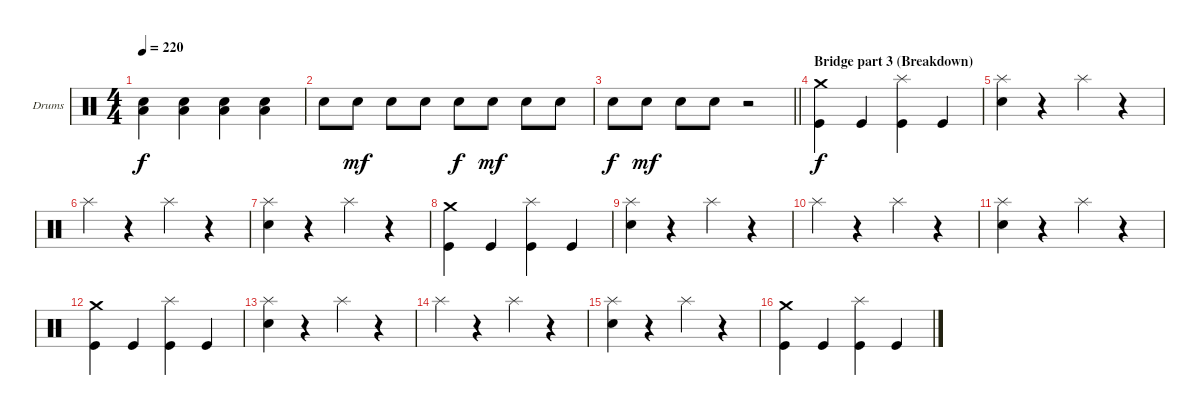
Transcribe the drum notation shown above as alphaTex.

\bracketExtendMode groupsimilarinstruments
\firstSystemTrackNameOrientation horizontal
\otherSystemsTrackNameOrientation horizontal
\track ("Drumkit" "Drums") {instrument percussion}
\staff {score}
\articulation defaults
\ts (4 4)
\tempo 220
\clef neutral
\ks c
("Snare (hit) 2" "Low Tom (hit)").4{dy f} ("Snare (hit) 2" "Low Tom (hit)").4 ("Snare (hit) 2" "Low Tom (hit)").4 ("Snare (hit) 2" "Low Tom (hit)").4 |
"Snare (hit) 2".8 "Snare (hit) 2".8{dy mf} "Snare (hit) 2".8 "Snare (hit) 2".8 "Snare (hit) 2".8{dy f} "Snare (hit) 2".8{dy mf} "Snare (hit) 2".8 "Snare (hit) 2".8 |
\barLineRight lightlight "Snare (hit) 2".8{dy f} "Snare (hit) 2".8{dy mf} "Snare (hit) 2".8 "Snare (hit) 2".8
r.2 |
\section ("" "Bridge part 3 (Breakdown)")
("Crash medium (hit)" "Kick (hit)").4{dy f} "Kick (hit)".4 ("Splash (hit)" "Kick (hit)").4 "Kick (hit)".4 |
("Splash (hit)" "Snare (hit) 2").4 r.4 "Splash (hit)".4 r.4 |
"Splash (hit)".4 r.4 "Splash (hit)".4 r.4 |
("Splash (hit)" "Snare (hit) 2").4 r.4 "Splash (hit)".4 r.4 |
("Crash medium (hit)" "Kick (hit)").4 "Kick (hit)".4 ("Splash (hit)" "Kick (hit)").4 "Kick (hit)".4 |
("Splash (hit)" "Snare (hit) 2").4 r.4 "Splash (hit)".4 r.4 |
"Splash (hit)".4 r.4 "Splash (hit)".4 r.4 |
("Splash (hit)" "Snare (hit) 2").4 r.4 "Splash (hit)".4 r.4 |
("Crash medium (hit)" "Kick (hit)").4 "Kick (hit)".4 ("Splash (hit)" "Kick (hit)").4 "Kick (hit)".4 |
("Splash (hit)" "Snare (hit) 2").4 r.4 "Splash (hit)".4 r.4 |
"Splash (hit)".4 r.4 "Splash (hit)".4 r.4 |
("Splash (hit)" "Snare (hit) 2").4 r.4 "Splash (hit)".4 r.4 |
("Crash medium (hit)" "Kick (hit)").4 "Kick (hit)".4 ("Splash (hit)" "Kick (hit)").4 "Kick (hit)".4
